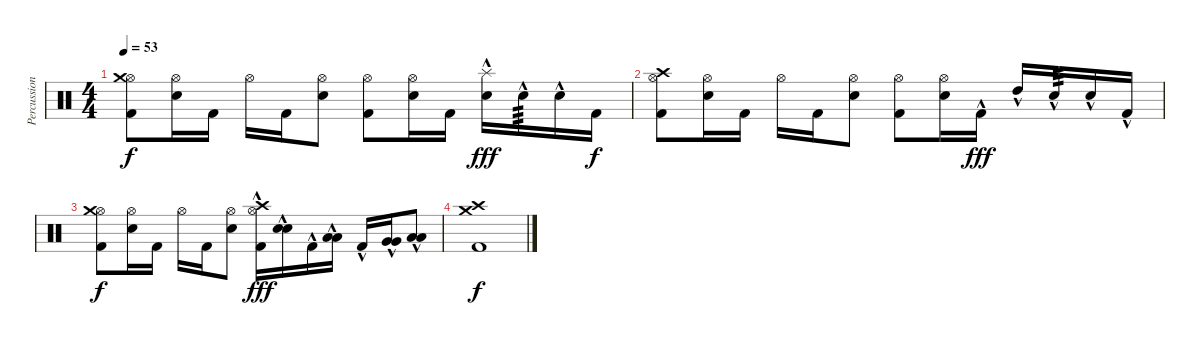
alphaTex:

\track ("Percussion" "Percussion") {instrument percussion}
\staff {score}
\articulation defaults
\ts (4 4)
\tempo 53
\clef neutral
\ks c
("Hi-Hat (open)" "Crash medium (hit)" "Kick (hit) 2").8{dy f} ("Hi-Hat (open)" "Electric Snare (hit)").16 "Kick (hit) 2".16 "Hi-Hat (open)".16 "Kick (hit) 2".16 ("Hi-Hat (open)" "Electric Snare (hit)").8 ("Hi-Hat (open)" "Kick (hit) 2").8 ("Hi-Hat (open)" "Electric Snare (hit)").16 "Kick (hit) 2".16 ("Splash (hit)"{hac} "Electric Snare (hit)"{hac}).16{dy fff} "Electric Snare (hit)"{hac}.16{tp 3} "Electric Snare (hit)"{hac}.16 "Kick (hit) 2".16{dy f} |
("Hi-Hat (open)" "Crash high (hit)" "Kick (hit) 2").8 ("Hi-Hat (open)" "Electric Snare (hit)").16 "Kick (hit) 2".16 "Hi-Hat (open)".16 "Kick (hit) 2".16 ("Hi-Hat (open)" "Electric Snare (hit)").8 ("Hi-Hat (open)" "Kick (hit) 2").8 ("Hi-Hat (open)" "Electric Snare (hit)").16 "Kick (hit) 2"{hac}.16{dy fff} "High Tom (hit)"{hac}.16 "Electric Snare (hit)"{hac}.16{tp 3} "Electric Snare (hit)"{hac}.16 "Kick (hit) 2"{hac}.16 |
("Hi-Hat (open)" "Crash medium (hit)" "Kick (hit) 2").8{dy f} ("Hi-Hat (open)" "Electric Snare (hit)").16 "Kick (hit) 2".16 "Hi-Hat (open)".16 "Kick (hit) 2".16 ("Hi-Hat (open)" "Electric Snare (hit)").8 ("Hi-Hat (open)"{hac} "Crash high (hit)"{hac} "Kick (hit) 2"{hac}).16{dy fff} ("Electric Snare (hit)"{hac} "Electric Snare (hit)"{hac}).16{bd 60} "Kick (hit) 2"{hac}.16 ("Low Tom (hit)"{hac} "Low Tom (hit)"{hac}).16{bd 60} "Kick (hit) 2"{hac}.16 ("Very Low Tom (hit)"{hac} "Very Low Tom (hit)"{hac}).16{bd 60} ("Low Floor Tom (hit)"{hac} "Low Floor Tom (hit)"{hac}).8{bd 60} |
("Crash high (hit)" "Crash medium (hit)" "Kick (hit) 2").1{dy f}
